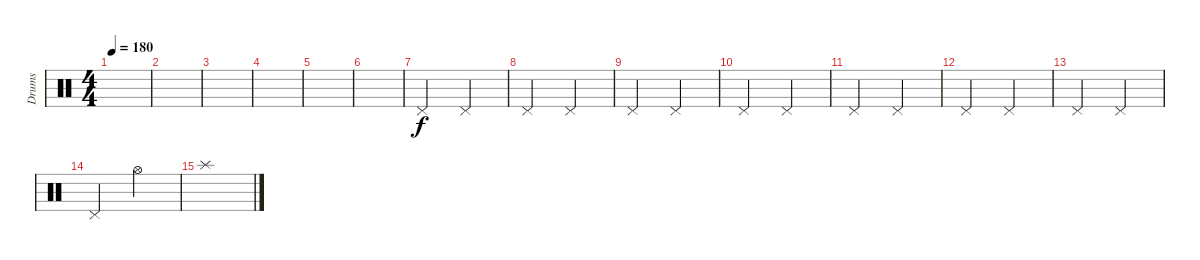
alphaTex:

\track ("Drums" "Drums") {instrument percussion}
\staff {score}
\articulation defaults
\ts (4 4)
\tempo 180
\clef neutral
\ks c
|
|
|
|
|
|
"Pedal Hi-Hat (hit)".2 "Pedal Hi-Hat (hit)".2 |
"Pedal Hi-Hat (hit)".2 "Pedal Hi-Hat (hit)".2 |
"Pedal Hi-Hat (hit)".2 "Pedal Hi-Hat (hit)".2 |
"Pedal Hi-Hat (hit)".2 "Pedal Hi-Hat (hit)".2 |
"Pedal Hi-Hat (hit)".2 "Pedal Hi-Hat (hit)".2 |
"Pedal Hi-Hat (hit)".2 "Pedal Hi-Hat (hit)".2 |
"Pedal Hi-Hat (hit)".2 "Pedal Hi-Hat (hit)".2 |
"Pedal Hi-Hat (hit)".2 "Hi-Hat (open)".2 |
"Splash (hit)".1{dy f}
